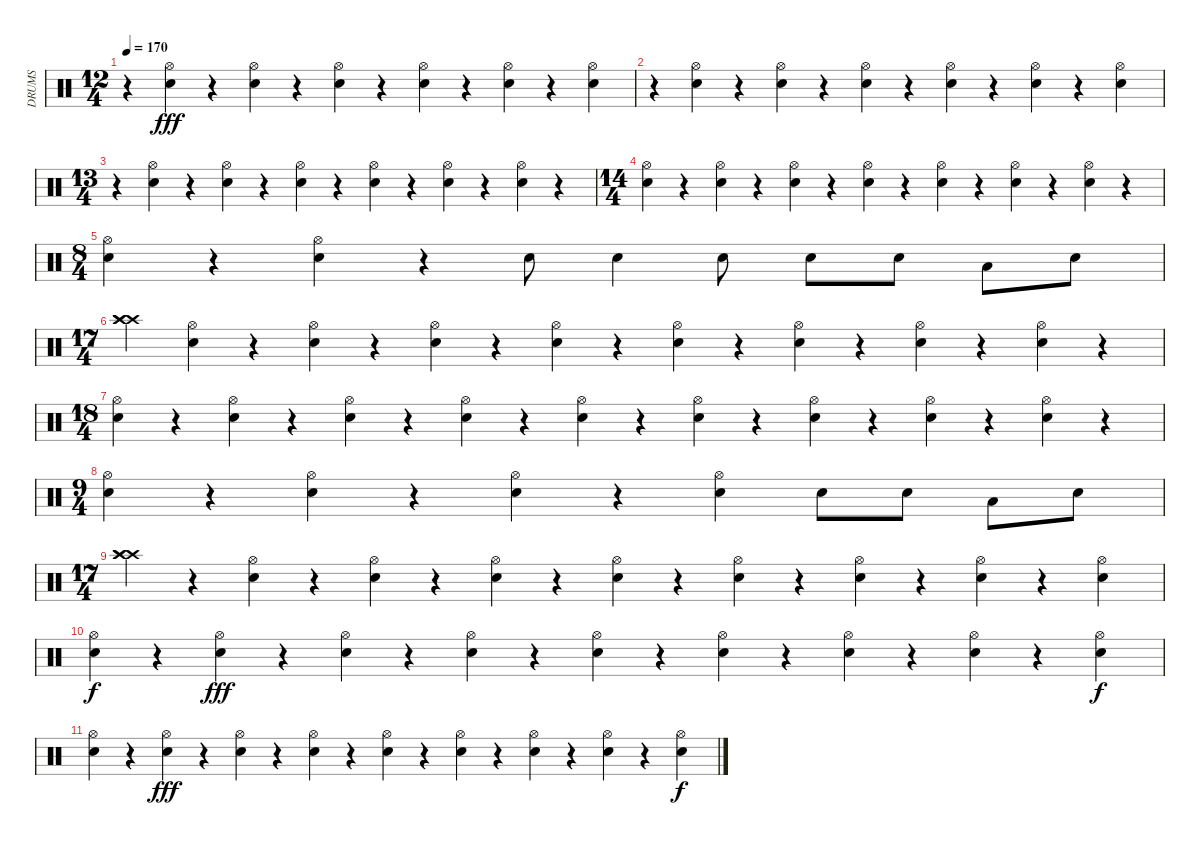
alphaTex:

\track ("DRUMS" "DRUMS") {instrument percussion}
\staff {score}
\articulation defaults
\ts (12 4)
\tempo 170
\clef neutral
\ks c
r.4{dy fff} ("Hi-Hat (open)" "Electric Snare (hit)").4 r.4 ("Hi-Hat (open)" "Electric Snare (hit)").4 r.4 ("Hi-Hat (open)" "Electric Snare (hit)").4 r.4 ("Hi-Hat (open)" "Electric Snare (hit)").4 r.4 ("Hi-Hat (open)" "Electric Snare (hit)").4 r.4 ("Hi-Hat (open)" "Electric Snare (hit)").4 |
r.4 ("Hi-Hat (open)" "Electric Snare (hit)").4 r.4 ("Hi-Hat (open)" "Electric Snare (hit)").4 r.4 ("Hi-Hat (open)" "Electric Snare (hit)").4 r.4 ("Hi-Hat (open)" "Electric Snare (hit)").4 r.4 ("Hi-Hat (open)" "Electric Snare (hit)").4 r.4 ("Hi-Hat (open)" "Electric Snare (hit)").4 |
\ts (13 4)
r.4 ("Hi-Hat (open)" "Electric Snare (hit)").4 r.4 ("Hi-Hat (open)" "Electric Snare (hit)").4 r.4 ("Hi-Hat (open)" "Electric Snare (hit)").4 r.4 ("Hi-Hat (open)" "Electric Snare (hit)").4 r.4 ("Hi-Hat (open)" "Electric Snare (hit)").4 r.4 ("Hi-Hat (open)" "Electric Snare (hit)").4 r.4 |
\ts (14 4)
("Hi-Hat (open)" "Electric Snare (hit)").4 r.4 ("Hi-Hat (open)" "Electric Snare (hit)").4 r.4 ("Hi-Hat (open)" "Electric Snare (hit)").4 r.4 ("Hi-Hat (open)" "Electric Snare (hit)").4 r.4 ("Hi-Hat (open)" "Electric Snare (hit)").4 r.4 ("Hi-Hat (open)" "Electric Snare (hit)").4 r.4 ("Hi-Hat (open)" "Electric Snare (hit)").4 r.4 |
\ts (8 4)
("Hi-Hat (open)" "Electric Snare (hit)").4 r.4 ("Hi-Hat (open)" "Electric Snare (hit)").4 r.4 "Electric Snare (hit)".8 "Electric Snare (hit)".4 "Electric Snare (hit)".8 "Electric Snare (hit)".8 "Electric Snare (hit)".8 "Low Tom (hit)".8 "Electric Snare (hit)".8 |
\ts (17 4)
("Crash high (hit)" "Crash high (hit)" "Crash high (hit)").4 ("Hi-Hat (open)" "Electric Snare (hit)").4 r.4 ("Hi-Hat (open)" "Electric Snare (hit)").4 r.4 ("Hi-Hat (open)" "Electric Snare (hit)").4 r.4 ("Hi-Hat (open)" "Electric Snare (hit)").4 r.4 ("Hi-Hat (open)" "Electric Snare (hit)").4 r.4 ("Hi-Hat (open)" "Electric Snare (hit)").4 r.4 ("Hi-Hat (open)" "Electric Snare (hit)").4 r.4 ("Hi-Hat (open)" "Electric Snare (hit)").4 r.4 |
\ts (18 4)
("Hi-Hat (open)" "Electric Snare (hit)").4 r.4 ("Hi-Hat (open)" "Electric Snare (hit)").4 r.4 ("Hi-Hat (open)" "Electric Snare (hit)").4 r.4 ("Hi-Hat (open)" "Electric Snare (hit)").4 r.4 ("Hi-Hat (open)" "Electric Snare (hit)").4 r.4 ("Hi-Hat (open)" "Electric Snare (hit)").4 r.4 ("Hi-Hat (open)" "Electric Snare (hit)").4 r.4 ("Hi-Hat (open)" "Electric Snare (hit)").4 r.4 ("Hi-Hat (open)" "Electric Snare (hit)").4 r.4 |
\ts (9 4)
("Hi-Hat (open)" "Electric Snare (hit)").4 r.4 ("Hi-Hat (open)" "Electric Snare (hit)").4 r.4 ("Hi-Hat (open)" "Electric Snare (hit)").4 r.4 ("Hi-Hat (open)" "Electric Snare (hit)").4 "Electric Snare (hit)".8 "Electric Snare (hit)".8 "Low Tom (hit)".8 "Electric Snare (hit)".8 |
\ts (17 4)
("Crash high (hit)" "Crash high (hit)" "Crash high (hit)").4 r.4 ("Hi-Hat (open)" "Electric Snare (hit)").4 r.4 ("Hi-Hat (open)" "Electric Snare (hit)").4 r.4 ("Hi-Hat (open)" "Electric Snare (hit)").4 r.4 ("Hi-Hat (open)" "Electric Snare (hit)").4 r.4 ("Hi-Hat (open)" "Electric Snare (hit)").4 r.4 ("Hi-Hat (open)" "Electric Snare (hit)").4 r.4 ("Hi-Hat (open)" "Electric Snare (hit)").4 r.4 ("Hi-Hat (open)" "Electric Snare (hit)").4 |
("Hi-Hat (open)" "Electric Snare (hit)").4{dy f volume 8} r.4 ("Hi-Hat (open)" "Electric Snare (hit)").4{dy fff} r.4 ("Hi-Hat (open)" "Electric Snare (hit)").4 r.4 ("Hi-Hat (open)" "Electric Snare (hit)").4 r.4 ("Hi-Hat (open)" "Electric Snare (hit)").4 r.4 ("Hi-Hat (open)" "Electric Snare (hit)").4 r.4 ("Hi-Hat (open)" "Electric Snare (hit)").4 r.4 ("Hi-Hat (open)" "Electric Snare (hit)").4 r.4 ("Hi-Hat (open)" "Electric Snare (hit)").4{dy f} |
("Hi-Hat (open)" "Electric Snare (hit)").4{volume 4} r.4 ("Hi-Hat (open)" "Electric Snare (hit)").4{dy fff} r.4 ("Hi-Hat (open)" "Electric Snare (hit)").4 r.4 ("Hi-Hat (open)" "Electric Snare (hit)").4 r.4 ("Hi-Hat (open)" "Electric Snare (hit)").4 r.4 ("Hi-Hat (open)" "Electric Snare (hit)").4 r.4 ("Hi-Hat (open)" "Electric Snare (hit)").4 r.4 ("Hi-Hat (open)" "Electric Snare (hit)").4 r.4 ("Hi-Hat (open)" "Electric Snare (hit)").4{dy f}
